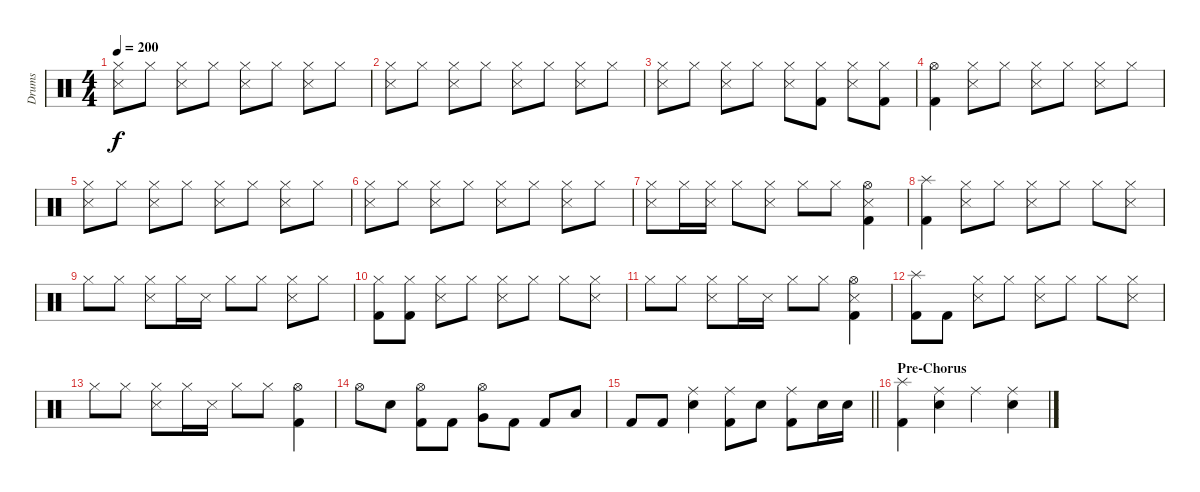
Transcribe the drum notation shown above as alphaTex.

\track ("Drums" "Drums") {instrument percussion}
\staff {score}
\articulation defaults
\ts (4 4)
\tempo 200
\clef neutral
\ks c
("Hi-Hat (closed)" "Snare (side stick) 3").8{dy f} "Hi-Hat (closed)".8 ("Hi-Hat (closed)" "Snare (side stick) 3").8 "Hi-Hat (closed)".8 ("Hi-Hat (closed)" "Snare (side stick) 3").8 "Hi-Hat (closed)".8 ("Hi-Hat (closed)" "Snare (side stick) 3").8 "Hi-Hat (closed)".8 |
("Hi-Hat (closed)" "Snare (side stick) 3").8 "Hi-Hat (closed)".8 ("Hi-Hat (closed)" "Snare (side stick) 3").8 "Hi-Hat (closed)".8 ("Hi-Hat (closed)" "Snare (side stick) 3").8 "Hi-Hat (closed)".8 ("Hi-Hat (closed)" "Snare (side stick) 3").8 "Hi-Hat (closed)".8 |
("Hi-Hat (closed)" "Snare (side stick) 3").8 "Hi-Hat (closed)".8 ("Hi-Hat (closed)" "Snare (side stick) 3").8 "Hi-Hat (closed)".8 ("Hi-Hat (closed)" "Snare (side stick) 3").8 ("Hi-Hat (closed)" "Kick (hit) 2").8 ("Hi-Hat (closed)" "Snare (side stick) 3").8 ("Hi-Hat (closed)" "Kick (hit) 2").8 |
("Hi-Hat (open)" "Kick (hit) 2").4 ("Hi-Hat (closed)" "Snare (side stick) 3").8 "Hi-Hat (closed)".8 ("Hi-Hat (closed)" "Snare (side stick) 3").8 "Hi-Hat (closed)".8 ("Hi-Hat (closed)" "Snare (side stick) 3").8 "Hi-Hat (closed)".8 |
("Hi-Hat (closed)" "Snare (side stick) 3").8 "Hi-Hat (closed)".8 ("Hi-Hat (closed)" "Snare (side stick) 3").8 "Hi-Hat (closed)".8 ("Hi-Hat (closed)" "Snare (side stick) 3").8 "Hi-Hat (closed)".8 ("Hi-Hat (closed)" "Snare (side stick) 3").8 "Hi-Hat (closed)".8 |
("Hi-Hat (closed)" "Snare (side stick) 3").8 "Hi-Hat (closed)".8 ("Hi-Hat (closed)" "Snare (side stick) 3").8 "Hi-Hat (closed)".8 ("Hi-Hat (closed)" "Snare (side stick) 3").8 "Hi-Hat (closed)".8 ("Hi-Hat (closed)" "Snare (side stick) 3").8 "Hi-Hat (closed)".8 |
("Hi-Hat (closed)" "Snare (side stick) 3").8 "Hi-Hat (closed)".16 ("Hi-Hat (closed)" "Snare (side stick) 3").16 "Hi-Hat (closed)".8 ("Hi-Hat (closed)" "Snare (side stick) 3").8 "Hi-Hat (closed)".8 "Hi-Hat (closed)".8 ("Hi-Hat (open)" "Snare (side stick) 3" "Kick (hit) 2").4 |
("Splash (hit)" "Kick (hit) 2").4 ("Hi-Hat (closed)" "Snare (side stick) 3").8 "Hi-Hat (closed)".8 ("Hi-Hat (closed)" "Snare (side stick) 3").8 "Hi-Hat (closed)".8 "Hi-Hat (closed)".8 ("Hi-Hat (closed)" "Snare (side stick) 3").8 |
"Hi-Hat (closed)".8 "Hi-Hat (closed)".8 ("Hi-Hat (closed)" "Snare (side stick) 3").8 "Hi-Hat (closed)".16 "Snare (side stick) 3".16 "Hi-Hat (closed)".8 "Hi-Hat (closed)".8 ("Hi-Hat (closed)" "Snare (side stick) 3").8 "Hi-Hat (closed)".8 |
("Hi-Hat (closed)" "Kick (hit) 2").8 ("Hi-Hat (closed)" "Kick (hit) 2").8 ("Hi-Hat (closed)" "Snare (side stick) 3").8 "Hi-Hat (closed)".8 ("Hi-Hat (closed)" "Snare (side stick) 3").8 "Hi-Hat (closed)".8 "Hi-Hat (closed)".8 ("Hi-Hat (closed)" "Snare (side stick) 3").8 |
"Hi-Hat (closed)".8 "Hi-Hat (closed)".8 ("Hi-Hat (closed)" "Snare (side stick) 3").8 "Hi-Hat (closed)".16 "Snare (side stick) 3".16 "Hi-Hat (closed)".8 "Hi-Hat (closed)".8 ("Hi-Hat (open)" "Snare (side stick) 3" "Kick (hit) 2").4 |
("Splash (hit)" "Kick (hit) 2").8 "Kick (hit) 2".8 ("Hi-Hat (closed)" "Snare (side stick) 3").8 "Hi-Hat (closed)".8 ("Hi-Hat (closed)" "Snare (side stick) 3").8 "Hi-Hat (closed)".8 "Hi-Hat (closed)".8 ("Hi-Hat (closed)" "Snare (side stick) 3").8 |
"Hi-Hat (closed)".8 "Hi-Hat (closed)".8 ("Hi-Hat (closed)" "Snare (side stick) 3").8 "Hi-Hat (closed)".16 "Snare (side stick) 3".16 "Hi-Hat (closed)".8 "Hi-Hat (closed)".8 ("Hi-Hat (open)" "Kick (hit) 2").4 |
"Hi-Hat (open)".8 "Snare (hit) 2".8 ("Hi-Hat (open)" "Kick (hit) 2").8 "Kick (hit) 2".8 ("Hi-Hat (open)" "Very Low Tom (hit)").8 "Kick (hit) 2".8 "Kick (hit) 2".8 "Low Tom (hit)".8 |
\barLineRight lightlight "Kick (hit) 2".8 "Kick (hit) 2".8
("Ride (middle)" "Snare (hit) 2").4 ("Ride (middle)" "Kick (hit) 2").8 "Snare (hit) 2".8 ("Ride (middle)" "Kick (hit) 2").8 "Snare (hit) 2".16 "Snare (hit) 2".16 |
\section ("" "Pre-Chorus")
("Splash (hit)" "Kick (hit) 2").4 ("Ride (middle)" "Snare (hit) 2").4 "Ride (middle)".4 ("Ride (middle)" "Snare (hit) 2").4
